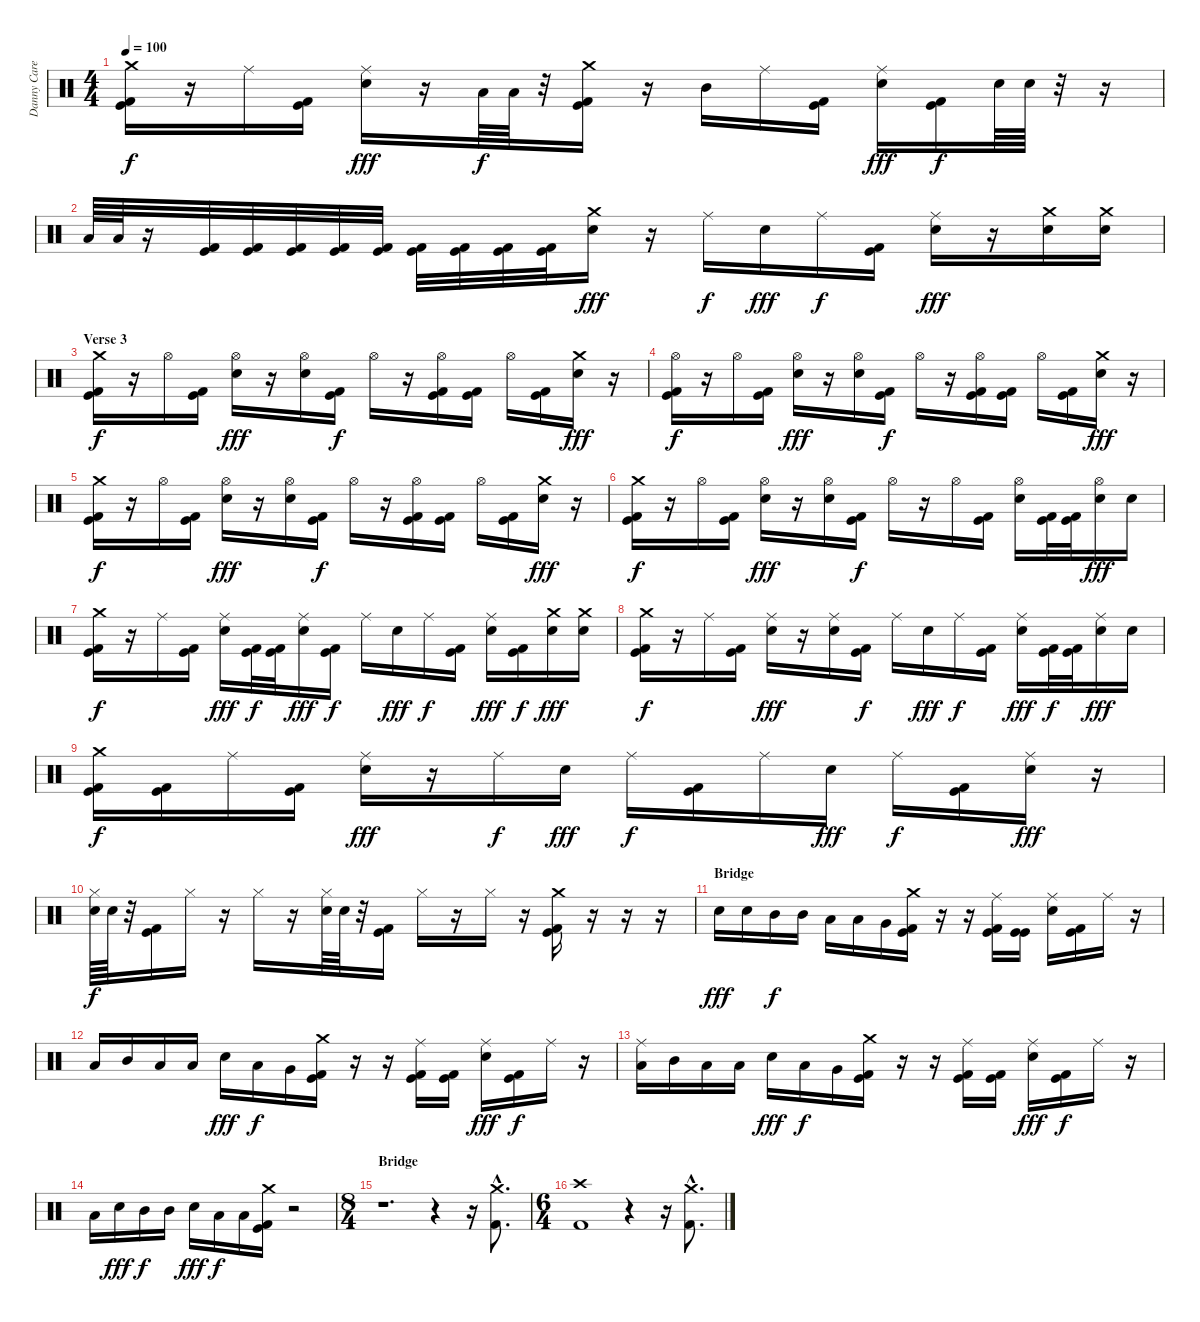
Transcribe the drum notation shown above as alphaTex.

\track ("Danny Carey - Percussion" "Danny Care") {instrument percussion}
\staff {score}
\articulation defaults
\ts (4 4)
\tempo 100
\clef neutral
\ks c
("Crash medium (hit)" "Kick (hit)" "Kick (hit) 2").16{dy f} r.16 "Ride (middle)".16 ("Kick (hit)" "Kick (hit) 2").16 ("Ride (middle)" "Electric Snare (hit)").16{dy fff} r.16 "Low Tom (hit)".64{dy f} "Low Tom (hit)".64 r.32 ("Crash medium (hit)" "Kick (hit)" "Kick (hit) 2").16 r.16 "Mid Tom (hit)".16 "Ride (middle)".16 ("Kick (hit)" "Kick (hit) 2").16 ("Ride (middle)" "Electric Snare (hit)").16{dy fff} ("Kick (hit)" "Kick (hit) 2").16{dy f} "Electric Snare (hit)".64 "Electric Snare (hit)".64 r.32 r.16 |
"Low Tom (hit)".64 "Low Tom (hit)".64 r.16 ("Kick (hit)" "Kick (hit) 2").32 ("Kick (hit)" "Kick (hit) 2").32 ("Kick (hit)" "Kick (hit) 2").32 ("Kick (hit)" "Kick (hit) 2").32 ("Kick (hit)" "Kick (hit) 2").32 ("Kick (hit)" "Kick (hit) 2").32 ("Kick (hit)" "Kick (hit) 2").32 ("Kick (hit)" "Kick (hit) 2").32 ("Kick (hit)" "Kick (hit) 2").32 ("Crash medium (hit)" "Electric Snare (hit)").16{dy fff} r.16 "Ride (middle)".16{dy f} "Electric Snare (hit)".16{dy fff} "Ride (middle)".16{dy f} ("Kick (hit)" "Kick (hit) 2").16 ("Ride (middle)" "Electric Snare (hit)").16{dy fff} r.16 ("Crash medium (hit)" "Electric Snare (hit)").16 ("Crash medium (hit)" "Electric Snare (hit)").16 |
\section ("" "Verse 3")
("Crash medium (hit)" "Kick (hit)" "Kick (hit) 2").16{dy f} r.16 "Hi-Hat (open)".16 ("Kick (hit)" "Kick (hit) 2").16 ("Hi-Hat (open)" "Electric Snare (hit)").16{dy fff} r.16 ("Hi-Hat (open)" "Electric Snare (hit)").16 ("Kick (hit)" "Kick (hit) 2").16{dy f} "Hi-Hat (open)".16 r.16 ("Hi-Hat (open)" "Kick (hit)" "Kick (hit) 2").16 ("Kick (hit)" "Kick (hit) 2").16 "Hi-Hat (open)".16 ("Kick (hit)" "Kick (hit) 2").16 ("Crash medium (hit)" "Electric Snare (hit)").16{dy fff} r.16 |
("Hi-Hat (open)" "Kick (hit)" "Kick (hit) 2").16{dy f} r.16 "Hi-Hat (open)".16 ("Kick (hit)" "Kick (hit) 2").16 ("Hi-Hat (open)" "Electric Snare (hit)").16{dy fff} r.16 ("Hi-Hat (open)" "Electric Snare (hit)").16 ("Kick (hit)" "Kick (hit) 2").16{dy f} "Hi-Hat (open)".16 r.16 ("Hi-Hat (open)" "Kick (hit)" "Kick (hit) 2").16 ("Kick (hit)" "Kick (hit) 2").16 "Hi-Hat (open)".16 ("Kick (hit)" "Kick (hit) 2").16 ("Crash medium (hit)" "Electric Snare (hit)").16{dy fff} r.16 |
("Crash medium (hit)" "Kick (hit)" "Kick (hit) 2").16{dy f} r.16 "Hi-Hat (open)".16 ("Kick (hit)" "Kick (hit) 2").16 ("Hi-Hat (open)" "Electric Snare (hit)").16{dy fff} r.16 ("Hi-Hat (open)" "Electric Snare (hit)").16 ("Kick (hit)" "Kick (hit) 2").16{dy f} "Hi-Hat (open)".16 r.16 ("Hi-Hat (open)" "Kick (hit)" "Kick (hit) 2").16 ("Kick (hit)" "Kick (hit) 2").16 "Hi-Hat (open)".16 ("Kick (hit)" "Kick (hit) 2").16 ("Crash medium (hit)" "Electric Snare (hit)").16{dy fff} r.16 |
("Crash medium (hit)" "Kick (hit)" "Kick (hit) 2").16{dy f} r.16 "Hi-Hat (open)".16 ("Kick (hit)" "Kick (hit) 2").16 ("Hi-Hat (open)" "Electric Snare (hit)").16{dy fff} r.16 ("Hi-Hat (open)" "Electric Snare (hit)").16 ("Kick (hit)" "Kick (hit) 2").16{dy f} "Hi-Hat (open)".16 r.16 "Hi-Hat (open)".16 ("Kick (hit)" "Kick (hit) 2").16 ("Hi-Hat (open)" "Electric Snare (hit)").16 ("Kick (hit)" "Kick (hit) 2").32 ("Kick (hit)" "Kick (hit) 2").32 ("Hi-Hat (open)" "Electric Snare (hit)").16{dy fff} "Electric Snare (hit)".16 |
("Crash medium (hit)" "Kick (hit)" "Kick (hit) 2").16{dy f} r.16 "Ride (middle)".16 ("Kick (hit)" "Kick (hit) 2").16 ("Ride (middle)" "Electric Snare (hit)").16{dy fff} ("Kick (hit)" "Kick (hit) 2").32{dy f} ("Kick (hit)" "Kick (hit) 2").32 ("Ride (middle)" "Electric Snare (hit)").16{dy fff} ("Kick (hit)" "Kick (hit) 2").16{dy f} "Ride (middle)".16 "Electric Snare (hit)".16{dy fff} "Ride (middle)".16{dy f} ("Kick (hit)" "Kick (hit) 2").16 ("Ride (middle)" "Electric Snare (hit)").16{dy fff} ("Kick (hit)" "Kick (hit) 2").16{dy f} ("Crash medium (hit)" "Electric Snare (hit)").16{dy fff} ("Crash medium (hit)" "Electric Snare (hit)").16 |
("Crash medium (hit)" "Kick (hit)" "Kick (hit) 2").16{dy f} r.16 "Ride (middle)".16 ("Kick (hit)" "Kick (hit) 2").16 ("Ride (middle)" "Electric Snare (hit)").16{dy fff} r.16 ("Ride (middle)" "Electric Snare (hit)").16 ("Kick (hit)" "Kick (hit) 2").16{dy f} "Ride (middle)".16 "Electric Snare (hit)".16{dy fff} "Ride (middle)".16{dy f} ("Kick (hit)" "Kick (hit) 2").16 ("Ride (middle)" "Electric Snare (hit)").16{dy fff} ("Kick (hit)" "Kick (hit) 2").32{dy f} ("Kick (hit)" "Kick (hit) 2").32 ("Ride (middle)" "Electric Snare (hit)").16{dy fff} "Electric Snare (hit)".16 |
("Crash medium (hit)" "Kick (hit)" "Kick (hit) 2").16{dy f} ("Kick (hit)" "Kick (hit) 2").16 "Ride (middle)".16 ("Kick (hit)" "Kick (hit) 2").16 ("Ride (middle)" "Electric Snare (hit)").16{dy fff} r.16 "Ride (middle)".16{dy f} "Electric Snare (hit)".16{dy fff} "Ride (middle)".16{dy f} ("Kick (hit)" "Kick (hit) 2").16 "Ride (middle)".16 "Electric Snare (hit)".16{dy fff} "Ride (middle)".16{dy f} ("Kick (hit)" "Kick (hit) 2").16 ("Ride (middle)" "Electric Snare (hit)").16{dy fff} r.16 |
("Hi-Hat (closed)" "Electric Snare (hit)").64{dy f} "Electric Snare (hit)".64 r.32 ("Kick (hit)" "Kick (hit) 2").16 "Hi-Hat (closed)".16 r.16 "Hi-Hat (closed)".16 r.16 ("Hi-Hat (closed)" "Electric Snare (hit)").64 "Electric Snare (hit)".64 r.32 ("Kick (hit)" "Kick (hit) 2").16 "Hi-Hat (closed)".16 r.16 "Hi-Hat (closed)".16 r.16 ("Crash medium (hit)" "Kick (hit)" "Kick (hit) 2").16 r.16 r.16 r.16 |
\section ("" "Bridge")
"Electric Snare (hit)".16{dy fff} "Electric Snare (hit)".16 "Mid Tom (hit)".16{dy f} "Mid Tom (hit)".16 "Low Tom (hit)".16 "Low Tom (hit)".16 "Very Low Tom (hit)".16 ("Crash medium (hit)" "Kick (hit)" "Kick (hit) 2").16 r.16 r.16 ("Ride (middle)" "Kick (hit)" "Kick (hit) 2").16 ("Kick (hit)" "Kick (hit)").16 ("Ride (middle)" "Electric Snare (hit)").16 ("Kick (hit)" "Kick (hit) 2").16 "Ride (middle)".16 r.16 |
"Low Tom (hit)".16 "Mid Tom (hit)".16 "Low Tom (hit)".16 "Low Tom (hit)".16 "Electric Snare (hit)".16{dy fff} "Low Tom (hit)".16{dy f} "Very Low Tom (hit)".16 ("Crash medium (hit)" "Kick (hit)" "Kick (hit) 2").16 r.16 r.16 ("Ride (middle)" "Kick (hit)" "Kick (hit) 2").16 ("Kick (hit)" "Kick (hit) 2").16 ("Ride (middle)" "Electric Snare (hit)").16{dy fff} ("Kick (hit)" "Kick (hit) 2").16{dy f} "Ride (middle)".16 r.16 |
("Ride (middle)" "Low Tom (hit)").16 "Mid Tom (hit)".16 "Low Tom (hit)".16 "Low Tom (hit)".16 "Electric Snare (hit)".16{dy fff} "Low Tom (hit)".16{dy f} "Very Low Tom (hit)".16 ("Crash medium (hit)" "Kick (hit)" "Kick (hit) 2").16 r.16 r.16 ("Ride (middle)" "Kick (hit)" "Kick (hit) 2").16 ("Kick (hit)" "Kick (hit) 2").16 ("Ride (middle)" "Electric Snare (hit)").16{dy fff} ("Kick (hit)" "Kick (hit) 2").16{dy f} "Ride (middle)".16 r.16 |
"Low Tom (hit)".16 "Electric Snare (hit)".16{dy fff} "Mid Tom (hit)".16{dy f} "Mid Tom (hit)".16 "Electric Snare (hit)".16{dy fff} "Low Tom (hit)".16{dy f} "Low Tom (hit)".16 ("Crash medium (hit)" "Kick (hit)" "Kick (hit) 2").16 r.2 |
\ts (8 4)
\section ("" "Bridge")
r.1{d} r.4 r.16 ("Crash medium (hit)"{hac} "Kick (hit) 2"{hac}).8{d} |
\ts (6 4)
("Crash high (hit)" "Kick (hit) 2").1 r.4 r.16 ("Crash medium (hit)"{hac} "Kick (hit) 2"{hac}).8{d}
